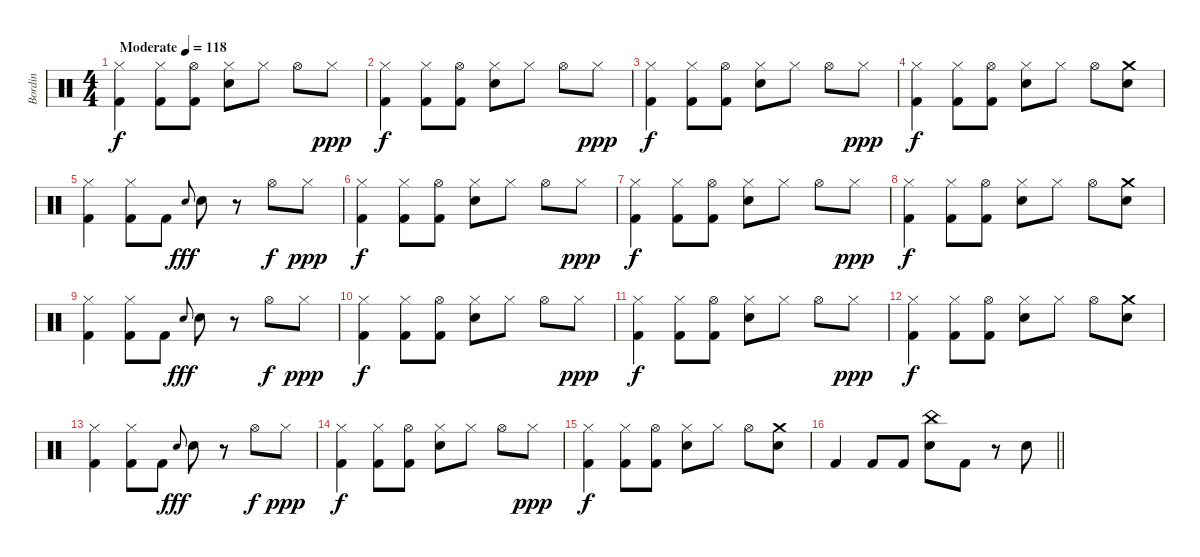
\track ("Bordin" "Bordin") {instrument percussion}
\staff {score}
\articulation defaults
\ts (4 4)
\tempo (118 "Moderate")
\clef neutral
\ks c
("Hi-Hat (closed)" "Kick (hit) 2").4{dy f} ("Hi-Hat (closed)" "Kick (hit) 2").8 ("Hi-Hat (open)" "Kick (hit) 2").8 ("Hi-Hat (closed)" "Electric Snare (hit)").8 "Hi-Hat (closed)".8 "Hi-Hat (open)".8 "Hi-Hat (closed)".8{dy ppp} |
("Hi-Hat (closed)" "Kick (hit) 2").4{dy f} ("Hi-Hat (closed)" "Kick (hit) 2").8 ("Hi-Hat (open)" "Kick (hit) 2").8 ("Hi-Hat (closed)" "Electric Snare (hit)").8 "Hi-Hat (closed)".8 "Hi-Hat (open)".8 "Hi-Hat (closed)".8{dy ppp} |
("Hi-Hat (closed)" "Kick (hit) 2").4{dy f} ("Hi-Hat (closed)" "Kick (hit) 2").8 ("Hi-Hat (open)" "Kick (hit) 2").8 ("Hi-Hat (closed)" "Electric Snare (hit)").8 "Hi-Hat (closed)".8 "Hi-Hat (open)".8 "Hi-Hat (closed)".8{dy ppp} |
("Hi-Hat (closed)" "Kick (hit) 2").4{dy f} ("Hi-Hat (closed)" "Kick (hit) 2").8 ("Hi-Hat (open)" "Kick (hit) 2").8 ("Hi-Hat (closed)" "Electric Snare (hit)").8 "Hi-Hat (closed)".8 "Hi-Hat (open)".8 ("Crash medium (hit)" "Electric Snare (hit)").8 |
("Hi-Hat (closed)" "Kick (hit) 2").4 ("Hi-Hat (closed)" "Kick (hit) 2").8 "Kick (hit) 2".8 "Electric Snare (hit)".8{gr onbeat dy fff} "Electric Snare (hit)".8 r.8 "Hi-Hat (open)".8{dy f} "Hi-Hat (closed)".8{dy ppp} |
("Hi-Hat (closed)" "Kick (hit) 2").4{dy f} ("Hi-Hat (closed)" "Kick (hit) 2").8 ("Hi-Hat (open)" "Kick (hit) 2").8 ("Hi-Hat (closed)" "Electric Snare (hit)").8 "Hi-Hat (closed)".8 "Hi-Hat (open)".8 "Hi-Hat (closed)".8{dy ppp} |
("Hi-Hat (closed)" "Kick (hit) 2").4{dy f} ("Hi-Hat (closed)" "Kick (hit) 2").8 ("Hi-Hat (open)" "Kick (hit) 2").8 ("Hi-Hat (closed)" "Electric Snare (hit)").8 "Hi-Hat (closed)".8 "Hi-Hat (open)".8 "Hi-Hat (closed)".8{dy ppp} |
("Hi-Hat (closed)" "Kick (hit) 2").4{dy f} ("Hi-Hat (closed)" "Kick (hit) 2").8 ("Hi-Hat (open)" "Kick (hit) 2").8 ("Hi-Hat (closed)" "Electric Snare (hit)").8 "Hi-Hat (closed)".8 "Hi-Hat (open)".8 ("Crash medium (hit)" "Electric Snare (hit)").8 |
("Hi-Hat (closed)" "Kick (hit) 2").4 ("Hi-Hat (closed)" "Kick (hit) 2").8 "Kick (hit) 2".8 "Electric Snare (hit)".8{gr onbeat dy fff} "Electric Snare (hit)".8 r.8 "Hi-Hat (open)".8{dy f} "Hi-Hat (closed)".8{dy ppp} |
("Hi-Hat (closed)" "Kick (hit) 2").4{dy f} ("Hi-Hat (closed)" "Kick (hit) 2").8 ("Hi-Hat (open)" "Kick (hit) 2").8 ("Hi-Hat (closed)" "Electric Snare (hit)").8 "Hi-Hat (closed)".8 "Hi-Hat (open)".8 "Hi-Hat (closed)".8{dy ppp} |
("Hi-Hat (closed)" "Kick (hit) 2").4{dy f} ("Hi-Hat (closed)" "Kick (hit) 2").8 ("Hi-Hat (open)" "Kick (hit) 2").8 ("Hi-Hat (closed)" "Electric Snare (hit)").8 "Hi-Hat (closed)".8 "Hi-Hat (open)".8 "Hi-Hat (closed)".8{dy ppp} |
("Hi-Hat (closed)" "Kick (hit) 2").4{dy f} ("Hi-Hat (closed)" "Kick (hit) 2").8 ("Hi-Hat (open)" "Kick (hit) 2").8 ("Hi-Hat (closed)" "Electric Snare (hit)").8 "Hi-Hat (closed)".8 "Hi-Hat (open)".8 ("Crash medium (hit)" "Electric Snare (hit)").8 |
("Hi-Hat (closed)" "Kick (hit) 2").4 ("Hi-Hat (closed)" "Kick (hit) 2").8 "Kick (hit) 2".8 "Electric Snare (hit)".8{gr onbeat dy fff} "Electric Snare (hit)".8 r.8 "Hi-Hat (open)".8{dy f} "Hi-Hat (closed)".8{dy ppp} |
("Hi-Hat (closed)" "Kick (hit) 2").4{dy f} ("Hi-Hat (closed)" "Kick (hit) 2").8 ("Hi-Hat (open)" "Kick (hit) 2").8 ("Hi-Hat (closed)" "Electric Snare (hit)").8 "Hi-Hat (closed)".8 "Hi-Hat (open)".8 "Hi-Hat (closed)".8{dy ppp} |
("Hi-Hat (closed)" "Kick (hit) 2").4{dy f} ("Hi-Hat (closed)" "Kick (hit) 2").8 ("Hi-Hat (open)" "Kick (hit) 2").8 ("Hi-Hat (closed)" "Electric Snare (hit)").8 "Hi-Hat (closed)".8 "Hi-Hat (open)".8 ("Crash medium (hit)" "Electric Snare (hit)").8 |
\barLineRight lightlight "Kick (hit) 2".4 "Kick (hit) 2".8 "Kick (hit) 2".8
("China (hit)" "Electric Snare (hit)").8 "Kick (hit) 2".8 r.8 "Electric Snare (hit)".8
